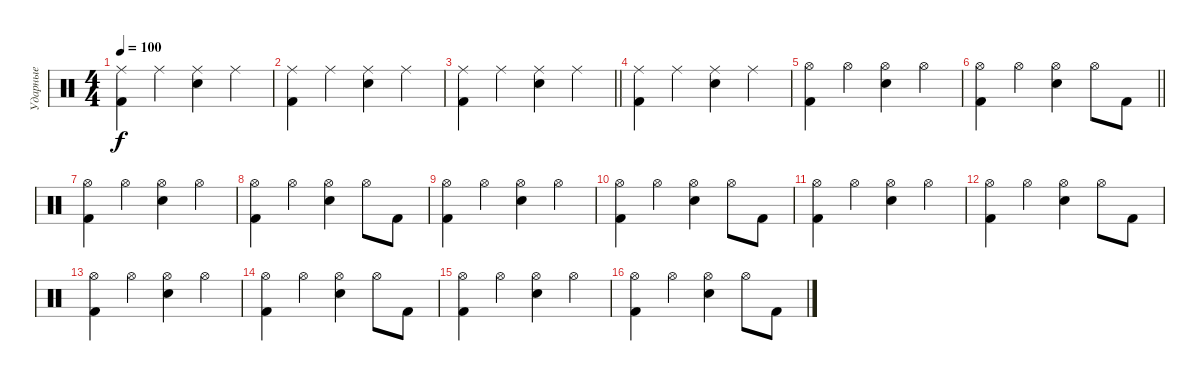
\track ("Ударные" "Ударные") {instrument percussion}
\staff {score}
\articulation defaults
\ts (4 4)
\tempo 100
\clef neutral
\ks c
("Kick (hit) 2" "Ride (middle)").4{dy f} "Ride (middle)".4 ("Snare (hit) 2" "Ride (middle)").4 "Ride (middle)".4 |
("Kick (hit) 2" "Ride (middle)").4 "Ride (middle)".4 ("Snare (hit) 2" "Ride (middle)").4 "Ride (middle)".4 |
\barLineRight lightlight
("Kick (hit) 2" "Ride (middle)").4 "Ride (middle)".4 ("Snare (hit) 2" "Ride (middle)").4 "Ride (middle)".4 |
("Kick (hit) 2" "Ride (middle)").4 "Ride (middle)".4 ("Snare (hit) 2" "Ride (middle)").4 "Ride (middle)".4 |
("Kick (hit) 2" "Hi-Hat (open)").4 "Hi-Hat (open)".4 ("Snare (hit) 2" "Hi-Hat (open)").4 "Hi-Hat (open)".4 |
\barLineRight lightlight
("Kick (hit) 2" "Hi-Hat (open)").4 "Hi-Hat (open)".4 ("Snare (hit) 2" "Hi-Hat (open)").4 "Hi-Hat (open)".8 "Kick (hit) 2".8 |
("Kick (hit) 2" "Hi-Hat (open)").4 "Hi-Hat (open)".4 ("Snare (hit) 2" "Hi-Hat (open)").4 "Hi-Hat (open)".4 |
("Kick (hit) 2" "Hi-Hat (open)").4 "Hi-Hat (open)".4 ("Snare (hit) 2" "Hi-Hat (open)").4 "Hi-Hat (open)".8 "Kick (hit) 2".8 |
("Kick (hit) 2" "Hi-Hat (open)").4 "Hi-Hat (open)".4 ("Snare (hit) 2" "Hi-Hat (open)").4 "Hi-Hat (open)".4 |
("Kick (hit) 2" "Hi-Hat (open)").4 "Hi-Hat (open)".4 ("Snare (hit) 2" "Hi-Hat (open)").4 "Hi-Hat (open)".8 "Kick (hit) 2".8 |
("Kick (hit) 2" "Hi-Hat (open)").4 "Hi-Hat (open)".4 ("Snare (hit) 2" "Hi-Hat (open)").4 "Hi-Hat (open)".4 |
("Kick (hit) 2" "Hi-Hat (open)").4 "Hi-Hat (open)".4 ("Snare (hit) 2" "Hi-Hat (open)").4 "Hi-Hat (open)".8 "Kick (hit) 2".8 |
("Kick (hit) 2" "Hi-Hat (open)").4 "Hi-Hat (open)".4 ("Snare (hit) 2" "Hi-Hat (open)").4 "Hi-Hat (open)".4 |
("Kick (hit) 2" "Hi-Hat (open)").4 "Hi-Hat (open)".4 ("Snare (hit) 2" "Hi-Hat (open)").4 "Hi-Hat (open)".8 "Kick (hit) 2".8 |
("Kick (hit) 2" "Hi-Hat (open)").4 "Hi-Hat (open)".4 ("Snare (hit) 2" "Hi-Hat (open)").4 "Hi-Hat (open)".4 |
("Kick (hit) 2" "Hi-Hat (open)").4 "Hi-Hat (open)".4 ("Snare (hit) 2" "Hi-Hat (open)").4 "Hi-Hat (open)".8 "Kick (hit) 2".8
